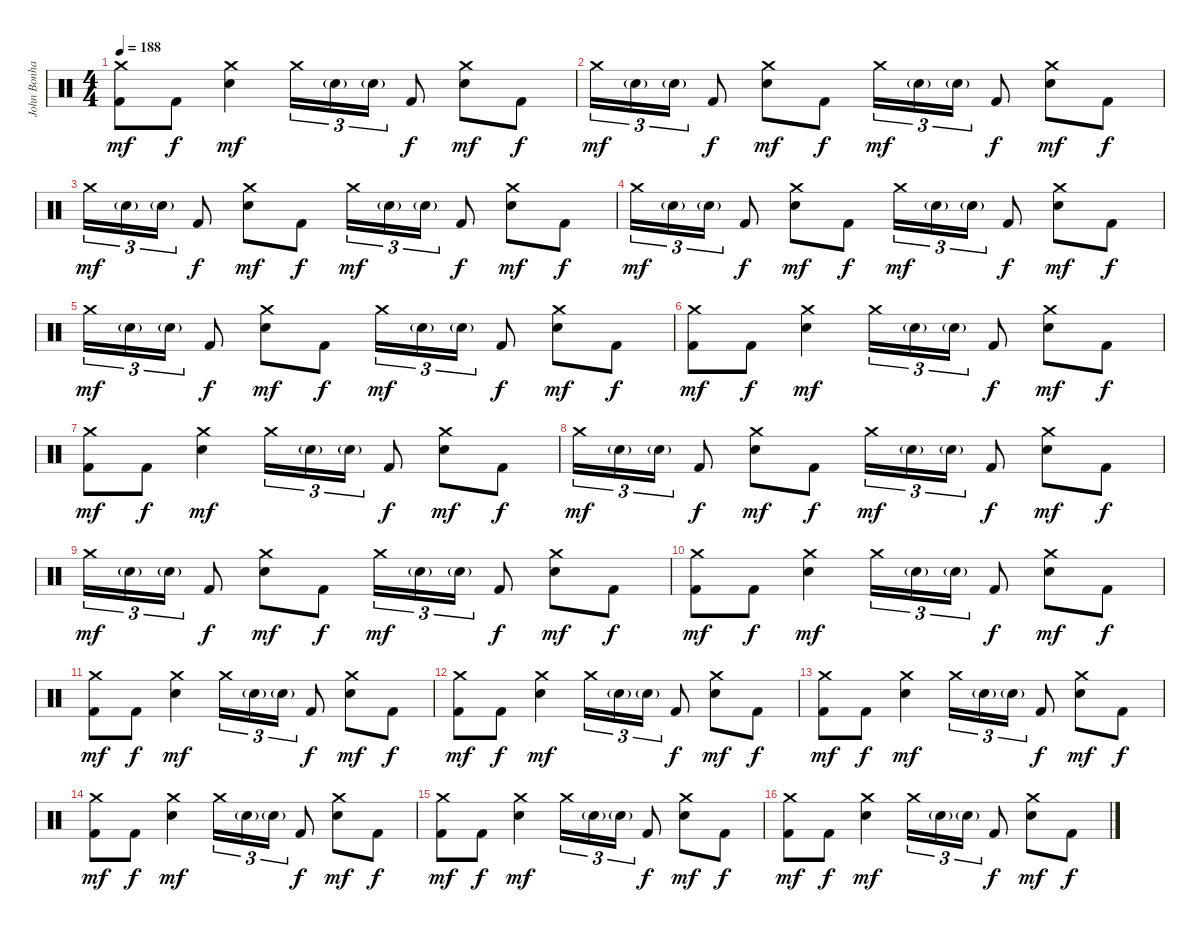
\track ("John Bonham - Drums" "John Bonha") {instrument percussion}
\staff {score}
\articulation defaults
\ts (4 4)
\tempo 188
\clef neutral
\ks c
("Crash medium (hit)" "Kick (hit) 2").8{dy mf} "Kick (hit) 2".8{dy f} ("Crash medium (hit)" "Electric Snare (hit)").4{dy mf} "Crash medium (hit)".16{tu (3 2)} "Electric Snare (hit)"{g}.16{tu (3 2)} "Electric Snare (hit)"{g}.16{tu (3 2)} "Kick (hit) 2".8{dy f} ("Crash medium (hit)" "Electric Snare (hit)").8{dy mf} "Kick (hit) 2".8{dy f} |
"Crash medium (hit)".16{tu (3 2) dy mf} "Electric Snare (hit)"{g}.16{tu (3 2)} "Electric Snare (hit)"{g}.16{tu (3 2)} "Kick (hit) 2".8{dy f} ("Crash medium (hit)" "Electric Snare (hit)").8{dy mf} "Kick (hit) 2".8{dy f} "Crash medium (hit)".16{tu (3 2) dy mf} "Electric Snare (hit)"{g}.16{tu (3 2)} "Electric Snare (hit)"{g}.16{tu (3 2)} "Kick (hit) 2".8{dy f} ("Crash medium (hit)" "Electric Snare (hit)").8{dy mf} "Kick (hit) 2".8{dy f} |
"Crash medium (hit)".16{tu (3 2) dy mf} "Electric Snare (hit)"{g}.16{tu (3 2)} "Electric Snare (hit)"{g}.16{tu (3 2)} "Kick (hit) 2".8{dy f} ("Crash medium (hit)" "Electric Snare (hit)").8{dy mf} "Kick (hit) 2".8{dy f} "Crash medium (hit)".16{tu (3 2) dy mf} "Electric Snare (hit)"{g}.16{tu (3 2)} "Electric Snare (hit)"{g}.16{tu (3 2)} "Kick (hit) 2".8{dy f} ("Crash medium (hit)" "Electric Snare (hit)").8{dy mf} "Kick (hit) 2".8{dy f} |
"Crash medium (hit)".16{tu (3 2) dy mf} "Electric Snare (hit)"{g}.16{tu (3 2)} "Electric Snare (hit)"{g}.16{tu (3 2)} "Kick (hit) 2".8{dy f} ("Crash medium (hit)" "Electric Snare (hit)").8{dy mf} "Kick (hit) 2".8{dy f} "Crash medium (hit)".16{tu (3 2) dy mf} "Electric Snare (hit)"{g}.16{tu (3 2)} "Electric Snare (hit)"{g}.16{tu (3 2)} "Kick (hit) 2".8{dy f} ("Crash medium (hit)" "Electric Snare (hit)").8{dy mf} "Kick (hit) 2".8{dy f} |
"Crash medium (hit)".16{tu (3 2) dy mf} "Electric Snare (hit)"{g}.16{tu (3 2)} "Electric Snare (hit)"{g}.16{tu (3 2)} "Kick (hit) 2".8{dy f} ("Crash medium (hit)" "Electric Snare (hit)").8{dy mf} "Kick (hit) 2".8{dy f} "Crash medium (hit)".16{tu (3 2) dy mf} "Electric Snare (hit)"{g}.16{tu (3 2)} "Electric Snare (hit)"{g}.16{tu (3 2)} "Kick (hit) 2".8{dy f} ("Crash medium (hit)" "Electric Snare (hit)").8{dy mf} "Kick (hit) 2".8{dy f} |
("Crash medium (hit)" "Kick (hit) 2").8{dy mf} "Kick (hit) 2".8{dy f} ("Crash medium (hit)" "Electric Snare (hit)").4{dy mf} "Crash medium (hit)".16{tu (3 2)} "Electric Snare (hit)"{g}.16{tu (3 2)} "Electric Snare (hit)"{g}.16{tu (3 2)} "Kick (hit) 2".8{dy f} ("Crash medium (hit)" "Electric Snare (hit)").8{dy mf} "Kick (hit) 2".8{dy f} |
("Crash medium (hit)" "Kick (hit) 2").8{dy mf} "Kick (hit) 2".8{dy f} ("Crash medium (hit)" "Electric Snare (hit)").4{dy mf} "Crash medium (hit)".16{tu (3 2)} "Electric Snare (hit)"{g}.16{tu (3 2)} "Electric Snare (hit)"{g}.16{tu (3 2)} "Kick (hit) 2".8{dy f} ("Crash medium (hit)" "Electric Snare (hit)").8{dy mf} "Kick (hit) 2".8{dy f} |
"Crash medium (hit)".16{tu (3 2) dy mf} "Electric Snare (hit)"{g}.16{tu (3 2)} "Electric Snare (hit)"{g}.16{tu (3 2)} "Kick (hit) 2".8{dy f} ("Crash medium (hit)" "Electric Snare (hit)").8{dy mf} "Kick (hit) 2".8{dy f} "Crash medium (hit)".16{tu (3 2) dy mf} "Electric Snare (hit)"{g}.16{tu (3 2)} "Electric Snare (hit)"{g}.16{tu (3 2)} "Kick (hit) 2".8{dy f} ("Crash medium (hit)" "Electric Snare (hit)").8{dy mf} "Kick (hit) 2".8{dy f} |
"Crash medium (hit)".16{tu (3 2) dy mf} "Electric Snare (hit)"{g}.16{tu (3 2)} "Electric Snare (hit)"{g}.16{tu (3 2)} "Kick (hit) 2".8{dy f} ("Crash medium (hit)" "Electric Snare (hit)").8{dy mf} "Kick (hit) 2".8{dy f} "Crash medium (hit)".16{tu (3 2) dy mf} "Electric Snare (hit)"{g}.16{tu (3 2)} "Electric Snare (hit)"{g}.16{tu (3 2)} "Kick (hit) 2".8{dy f} ("Crash medium (hit)" "Electric Snare (hit)").8{dy mf} "Kick (hit) 2".8{dy f} |
("Crash medium (hit)" "Kick (hit) 2").8{dy mf} "Kick (hit) 2".8{dy f} ("Crash medium (hit)" "Electric Snare (hit)").4{dy mf} "Crash medium (hit)".16{tu (3 2)} "Electric Snare (hit)"{g}.16{tu (3 2)} "Electric Snare (hit)"{g}.16{tu (3 2)} "Kick (hit) 2".8{dy f} ("Crash medium (hit)" "Electric Snare (hit)").8{dy mf} "Kick (hit) 2".8{dy f} |
("Crash medium (hit)" "Kick (hit) 2").8{dy mf} "Kick (hit) 2".8{dy f} ("Crash medium (hit)" "Electric Snare (hit)").4{dy mf} "Crash medium (hit)".16{tu (3 2)} "Electric Snare (hit)"{g}.16{tu (3 2)} "Electric Snare (hit)"{g}.16{tu (3 2)} "Kick (hit) 2".8{dy f} ("Crash medium (hit)" "Electric Snare (hit)").8{dy mf} "Kick (hit) 2".8{dy f} |
("Crash medium (hit)" "Kick (hit) 2").8{dy mf} "Kick (hit) 2".8{dy f} ("Crash medium (hit)" "Electric Snare (hit)").4{dy mf} "Crash medium (hit)".16{tu (3 2)} "Electric Snare (hit)"{g}.16{tu (3 2)} "Electric Snare (hit)"{g}.16{tu (3 2)} "Kick (hit) 2".8{dy f} ("Crash medium (hit)" "Electric Snare (hit)").8{dy mf} "Kick (hit) 2".8{dy f} |
("Crash medium (hit)" "Kick (hit) 2").8{dy mf} "Kick (hit) 2".8{dy f} ("Crash medium (hit)" "Electric Snare (hit)").4{dy mf} "Crash medium (hit)".16{tu (3 2)} "Electric Snare (hit)"{g}.16{tu (3 2)} "Electric Snare (hit)"{g}.16{tu (3 2)} "Kick (hit) 2".8{dy f} ("Crash medium (hit)" "Electric Snare (hit)").8{dy mf} "Kick (hit) 2".8{dy f} |
("Crash medium (hit)" "Kick (hit) 2").8{dy mf} "Kick (hit) 2".8{dy f} ("Crash medium (hit)" "Electric Snare (hit)").4{dy mf} "Crash medium (hit)".16{tu (3 2)} "Electric Snare (hit)"{g}.16{tu (3 2)} "Electric Snare (hit)"{g}.16{tu (3 2)} "Kick (hit) 2".8{dy f} ("Crash medium (hit)" "Electric Snare (hit)").8{dy mf} "Kick (hit) 2".8{dy f} |
("Crash medium (hit)" "Kick (hit) 2").8{dy mf} "Kick (hit) 2".8{dy f} ("Crash medium (hit)" "Electric Snare (hit)").4{dy mf} "Crash medium (hit)".16{tu (3 2)} "Electric Snare (hit)"{g}.16{tu (3 2)} "Electric Snare (hit)"{g}.16{tu (3 2)} "Kick (hit) 2".8{dy f} ("Crash medium (hit)" "Electric Snare (hit)").8{dy mf} "Kick (hit) 2".8{dy f} |
("Crash medium (hit)" "Kick (hit) 2").8{dy mf} "Kick (hit) 2".8{dy f} ("Crash medium (hit)" "Electric Snare (hit)").4{dy mf} "Crash medium (hit)".16{tu (3 2)} "Electric Snare (hit)"{g}.16{tu (3 2)} "Electric Snare (hit)"{g}.16{tu (3 2)} "Kick (hit) 2".8{dy f} ("Crash medium (hit)" "Electric Snare (hit)").8{dy mf} "Kick (hit) 2".8{dy f}
